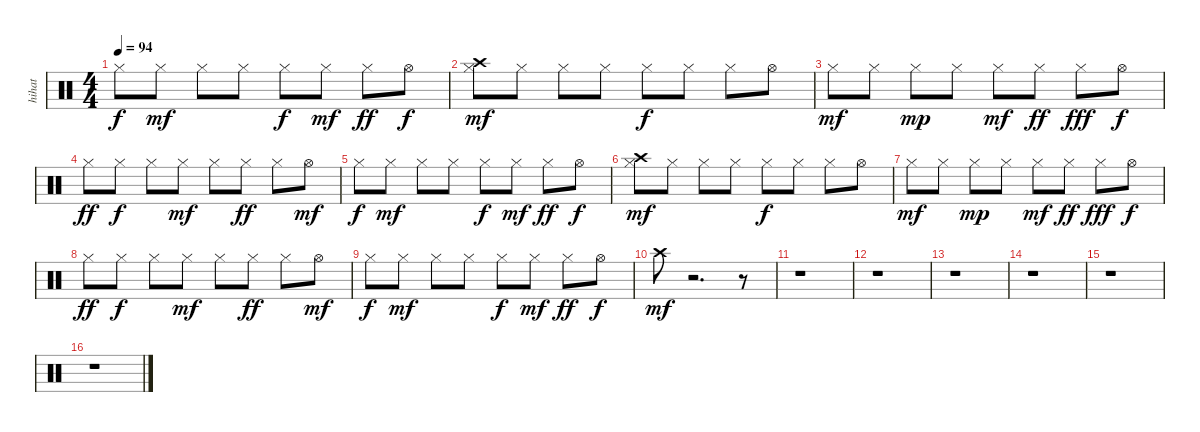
\track ("hihat" "hihat") {instrument percussion}
\staff {score}
\articulation defaults
\ts (4 4)
\tempo 94
\clef neutral
\ks c "Hi-Hat (closed)".8{dy f} "Hi-Hat (closed)".8{dy mf} "Hi-Hat (closed)".8 "Hi-Hat (closed)".8 "Hi-Hat (closed)".8{dy f} "Hi-Hat (closed)".8{dy mf} "Hi-Hat (closed)".8{dy ff} "Hi-Hat (open)".8{dy f}
|
("Crash high (hit)" "Hi-Hat (closed)").8{dy mf} "Hi-Hat (closed)".8 "Hi-Hat (closed)".8 "Hi-Hat (closed)".8 "Hi-Hat (closed)".8{dy f} "Hi-Hat (closed)".8 "Hi-Hat (closed)".8 "Hi-Hat (open)".8 |
"Hi-Hat (closed)".8{dy mf} "Hi-Hat (closed)".8 "Hi-Hat (closed)".8{dy mp} "Hi-Hat (closed)".8 "Hi-Hat (closed)".8{dy mf} "Hi-Hat (closed)".8{dy ff} "Hi-Hat (closed)".8{dy fff} "Hi-Hat (open)".8{dy f} |
"Hi-Hat (closed)".8{dy ff} "Hi-Hat (closed)".8{dy f} "Hi-Hat (closed)".8 "Hi-Hat (closed)".8{dy mf} "Hi-Hat (closed)".8 "Hi-Hat (closed)".8{dy ff} "Hi-Hat (closed)".8 "Hi-Hat (open)".8{dy mf} |
"Hi-Hat (closed)".8{dy f} "Hi-Hat (closed)".8{dy mf} "Hi-Hat (closed)".8 "Hi-Hat (closed)".8 "Hi-Hat (closed)".8{dy f} "Hi-Hat (closed)".8{dy mf} "Hi-Hat (closed)".8{dy ff} "Hi-Hat (open)".8{dy f} |
("Crash high (hit)" "Hi-Hat (closed)").8{dy mf} "Hi-Hat (closed)".8 "Hi-Hat (closed)".8 "Hi-Hat (closed)".8 "Hi-Hat (closed)".8{dy f} "Hi-Hat (closed)".8 "Hi-Hat (closed)".8 "Hi-Hat (open)".8 |
"Hi-Hat (closed)".8{dy mf} "Hi-Hat (closed)".8 "Hi-Hat (closed)".8{dy mp} "Hi-Hat (closed)".8 "Hi-Hat (closed)".8{dy mf} "Hi-Hat (closed)".8{dy ff} "Hi-Hat (closed)".8{dy fff} "Hi-Hat (open)".8{dy f} |
"Hi-Hat (closed)".8{dy ff} "Hi-Hat (closed)".8{dy f} "Hi-Hat (closed)".8 "Hi-Hat (closed)".8{dy mf} "Hi-Hat (closed)".8 "Hi-Hat (closed)".8{dy ff} "Hi-Hat (closed)".8 "Hi-Hat (open)".8{dy mf} |
"Hi-Hat (closed)".8{dy f} "Hi-Hat (closed)".8{dy mf} "Hi-Hat (closed)".8 "Hi-Hat (closed)".8 "Hi-Hat (closed)".8{dy f} "Hi-Hat (closed)".8{dy mf} "Hi-Hat (closed)".8{dy ff} "Hi-Hat (open)".8{dy f} |
"Crash high (hit)".8{dy mf} r.2{d} r.8 |
r.1 |
r.1 |
r.1 |
r.1 |
r.1 |
r.1
